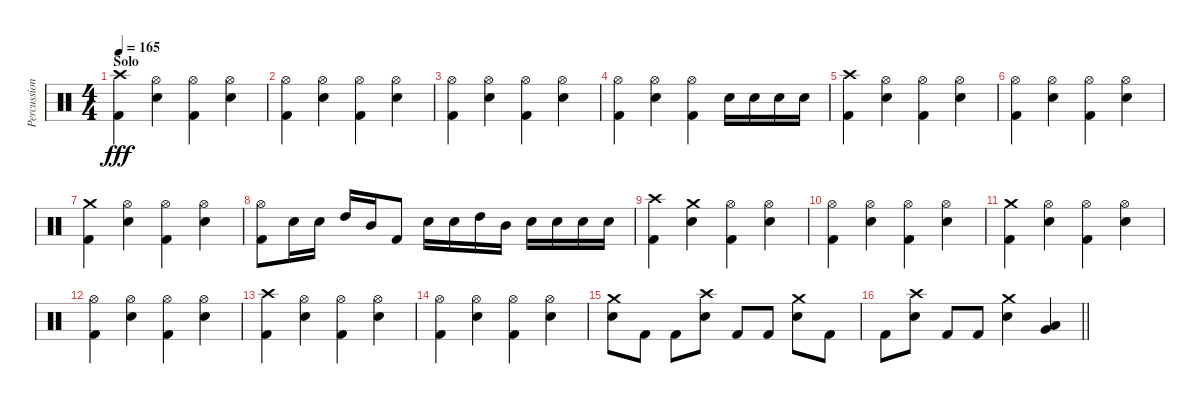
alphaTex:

\track ("Percussion" "Percussion") {instrument percussion}
\staff {score}
\articulation defaults
\ts (4 4)
\section ("" "Solo")
\tempo 165
\clef neutral
\ks c
("Crash high (hit)" "Kick (hit) 2").4{dy fff} ("Hi-Hat (open)" "Electric Snare (hit)").4 ("Hi-Hat (open)" "Kick (hit) 2").4 ("Hi-Hat (open)" "Electric Snare (hit)").4 |
("Hi-Hat (open)" "Kick (hit) 2").4 ("Hi-Hat (open)" "Electric Snare (hit)").4 ("Hi-Hat (open)" "Kick (hit) 2").4 ("Hi-Hat (open)" "Electric Snare (hit)").4 |
("Hi-Hat (open)" "Kick (hit) 2").4 ("Hi-Hat (open)" "Electric Snare (hit)").4 ("Hi-Hat (open)" "Kick (hit) 2").4 ("Hi-Hat (open)" "Electric Snare (hit)").4 |
("Hi-Hat (open)" "Kick (hit) 2").4 ("Hi-Hat (open)" "Electric Snare (hit)").4 ("Hi-Hat (open)" "Kick (hit) 2").4 "Electric Snare (hit)".16 "Electric Snare (hit)".16 "Electric Snare (hit)".16 "Electric Snare (hit)".16 |
("Crash high (hit)" "Kick (hit) 2").4 ("Hi-Hat (open)" "Electric Snare (hit)").4 ("Hi-Hat (open)" "Kick (hit) 2").4 ("Hi-Hat (open)" "Electric Snare (hit)").4 |
("Hi-Hat (open)" "Kick (hit) 2").4 ("Hi-Hat (open)" "Electric Snare (hit)").4 ("Hi-Hat (open)" "Kick (hit) 2").4 ("Hi-Hat (open)" "Electric Snare (hit)").4 |
("Crash medium (hit)" "Kick (hit) 2").4 ("Hi-Hat (open)" "Electric Snare (hit)").4 ("Hi-Hat (open)" "Kick (hit) 2").4 ("Hi-Hat (open)" "Electric Snare (hit)").4 |
("Hi-Hat (open)" "Kick (hit) 2").8 "Electric Snare (hit)".16 "Electric Snare (hit)".16 "High Tom (hit)".16 "Mid Tom (hit)".16 "Kick (hit) 2".8 "Electric Snare (hit)".16 "Electric Snare (hit)".16 "High Tom (hit)".16 "Mid Tom (hit)".16 "Electric Snare (hit)".16 "Electric Snare (hit)".16 "Electric Snare (hit)".16 "Electric Snare (hit)".16 |
("Crash high (hit)" "Kick (hit) 2").4 ("Crash medium (hit)" "Electric Snare (hit)").4 ("Hi-Hat (open)" "Kick (hit) 2").4 ("Hi-Hat (open)" "Electric Snare (hit)").4 |
("Hi-Hat (open)" "Kick (hit) 2").4 ("Hi-Hat (open)" "Electric Snare (hit)").4 ("Hi-Hat (open)" "Kick (hit) 2").4 ("Hi-Hat (open)" "Electric Snare (hit)").4 |
("Crash medium (hit)" "Kick (hit) 2").4 ("Hi-Hat (open)" "Electric Snare (hit)").4 ("Hi-Hat (open)" "Kick (hit) 2").4 ("Hi-Hat (open)" "Electric Snare (hit)").4 |
("Hi-Hat (open)" "Kick (hit) 2").4 ("Hi-Hat (open)" "Electric Snare (hit)").4 ("Hi-Hat (open)" "Kick (hit) 2").4 ("Hi-Hat (open)" "Electric Snare (hit)").4 |
("Crash high (hit)" "Kick (hit) 2").4 ("Hi-Hat (open)" "Electric Snare (hit)").4 ("Hi-Hat (open)" "Kick (hit) 2").4 ("Hi-Hat (open)" "Electric Snare (hit)").4 |
("Hi-Hat (open)" "Kick (hit) 2").4 ("Hi-Hat (open)" "Electric Snare (hit)").4 ("Hi-Hat (open)" "Kick (hit) 2").4 ("Hi-Hat (open)" "Electric Snare (hit)").4 |
("Crash medium (hit)" "Electric Snare (hit)").8 "Kick (hit) 2".8 "Kick (hit) 2".8 ("Crash high (hit)" "Electric Snare (hit)").8 "Kick (hit) 2".8 "Kick (hit) 2".8 ("Crash medium (hit)" "Electric Snare (hit)").8 "Kick (hit) 2".8 |
\barLineRight lightlight "Kick (hit) 2".8
("Crash high (hit)" "Electric Snare (hit)").8 "Kick (hit) 2".8 "Kick (hit) 2".8 ("Crash medium (hit)" "Electric Snare (hit)").4 ("Low Tom (hit)" "Very Low Tom (hit)").4
